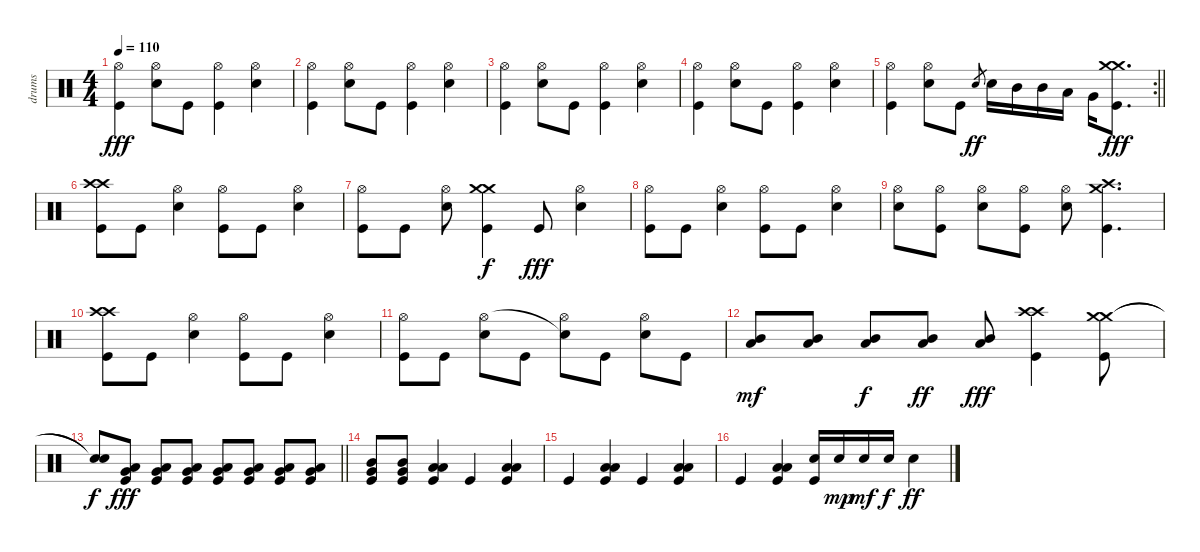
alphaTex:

\track ("drums" "drums") {instrument percussion}
\staff {score}
\articulation defaults
\ts (4 4)
\tempo 110
\clef neutral
\ks c
("Hi-Hat (open)" "Kick (hit)").4{dy fff} ("Electric Snare (hit)" "Hi-Hat (open)").8 "Kick (hit)".8 ("Hi-Hat (open)" "Kick (hit)").4 ("Electric Snare (hit)" "Hi-Hat (open)").4 |
("Hi-Hat (open)" "Kick (hit)").4 ("Electric Snare (hit)" "Hi-Hat (open)").8 "Kick (hit)".8 ("Hi-Hat (open)" "Kick (hit)").4 ("Electric Snare (hit)" "Hi-Hat (open)").4 |
("Hi-Hat (open)" "Kick (hit)").4 ("Electric Snare (hit)" "Hi-Hat (open)").8 "Kick (hit)".8 ("Hi-Hat (open)" "Kick (hit)").4 ("Electric Snare (hit)" "Hi-Hat (open)").4 |
("Hi-Hat (open)" "Kick (hit)").4 ("Electric Snare (hit)" "Hi-Hat (open)").8 "Kick (hit)".8 ("Hi-Hat (open)" "Kick (hit)").4 ("Electric Snare (hit)" "Hi-Hat (open)").4 |
\rc 2
\barLineRight lightlight
("Hi-Hat (open)" "Kick (hit)").4 ("Electric Snare (hit)" "Hi-Hat (open)").8 "Kick (hit)".8 "Electric Snare (hit)".8{gr dy ff} "Electric Snare (hit)".16 "Mid Tom (hit)".16 "Mid Tom (hit)".16 "Low Tom (hit)".16 "Very Low Tom (hit)".16 ("Crash medium (hit)" "Crash medium (hit)" "Kick (hit)").8{d dy fff} |
("Crash high (hit)" "Crash high (hit)" "Kick (hit)").8 "Kick (hit)".8 ("Electric Snare (hit)" "Hi-Hat (open)").4 ("Hi-Hat (open)" "Kick (hit)").8 "Kick (hit)".8 ("Electric Snare (hit)" "Hi-Hat (open)").4 |
("Hi-Hat (open)" "Kick (hit)").8 "Kick (hit)".8 ("Electric Snare (hit)" "Hi-Hat (open)").8 ("Crash medium (hit)" "Crash medium (hit)" "Kick (hit)").4{dy f} "Kick (hit)".8{dy fff} ("Electric Snare (hit)" "Hi-Hat (open)").4 |
("Hi-Hat (open)" "Kick (hit)").8 "Kick (hit)".8 ("Electric Snare (hit)" "Hi-Hat (open)").4 ("Hi-Hat (open)" "Kick (hit)").8 "Kick (hit)".8 ("Electric Snare (hit)" "Hi-Hat (open)").4 |
("Electric Snare (hit)" "Hi-Hat (open)").8 ("Hi-Hat (open)" "Kick (hit)").8 ("Electric Snare (hit)" "Hi-Hat (open)").8 ("Hi-Hat (open)" "Kick (hit)").8 ("Electric Snare (hit)" "Hi-Hat (open)").8 ("Crash high (hit)" "Crash medium (hit)" "Kick (hit)").4{d} |
("Crash high (hit)" "Crash high (hit)" "Kick (hit)").8 "Kick (hit)".8 ("Electric Snare (hit)" "Hi-Hat (open)").4 ("Hi-Hat (open)" "Kick (hit)").8 "Kick (hit)".8 ("Electric Snare (hit)" "Hi-Hat (open)").4 |
("Hi-Hat (open)" "Kick (hit)").8 "Kick (hit)".8 ("Electric Snare (hit)" "Hi-Hat (open)").8 "Kick (hit)".8 ("Hi-Hat (open)" "Snare (hit)"{t}).8 "Kick (hit)".8 ("Electric Snare (hit)" "Hi-Hat (open)").8 "Kick (hit)".8 |
("Mid Tom (hit)" "Low Tom (hit)").8{dy mf} ("Mid Tom (hit)" "Low Tom (hit)").8 ("Mid Tom (hit)" "Low Tom (hit)").8{dy f} ("Mid Tom (hit)" "Low Tom (hit)").8{dy ff} ("Mid Tom (hit)" "Low Tom (hit)").8{dy fff} ("Crash high (hit)" "Crash high (hit)" "Kick (hit)").4 ("Crash medium (hit)" "Crash medium (hit)" "Kick (hit)").8 |
\barLineRight lightlight
("Snare (hit)"{t} "Snare (hit)"{t}).8{dy f} ("Low Tom (hit)" "Very Low Tom (hit)" "Kick (hit)").8{dy fff} ("Low Tom (hit)" "Very Low Tom (hit)" "Kick (hit)").8 ("Low Tom (hit)" "Very Low Tom (hit)" "Kick (hit)").8 ("Low Tom (hit)" "Very Low Tom (hit)" "Kick (hit)").8 ("Low Tom (hit)" "Very Low Tom (hit)" "Kick (hit)").8 ("Low Tom (hit)" "Very Low Tom (hit)" "Kick (hit)").8 ("Low Tom (hit)" "Very Low Tom (hit)" "Kick (hit)").8 |
("Mid Tom (hit)" "Very Low Tom (hit)" "Kick (hit)").8 ("Mid Tom (hit)" "Very Low Tom (hit)" "Kick (hit)").8 ("Low Tom (hit)" "Low Floor Tom (hit)" "Kick (hit)").4 "Kick (hit)".4 ("Low Tom (hit)" "Low Floor Tom (hit)" "Kick (hit)").4 |
"Kick (hit)".4 ("Low Tom (hit)" "Low Floor Tom (hit)" "Kick (hit)").4 "Kick (hit)".4 ("Low Tom (hit)" "Low Floor Tom (hit)" "Kick (hit)").4 |
"Kick (hit)".4 ("Low Tom (hit)" "Low Floor Tom (hit)" "Kick (hit)").4 ("Electric Snare (hit)" "Kick (hit)").16 "Electric Snare (hit)".16{dy mp} "Electric Snare (hit)".16{dy mf} "Electric Snare (hit)".16{dy f} "Electric Snare (hit)".4{dy ff}
